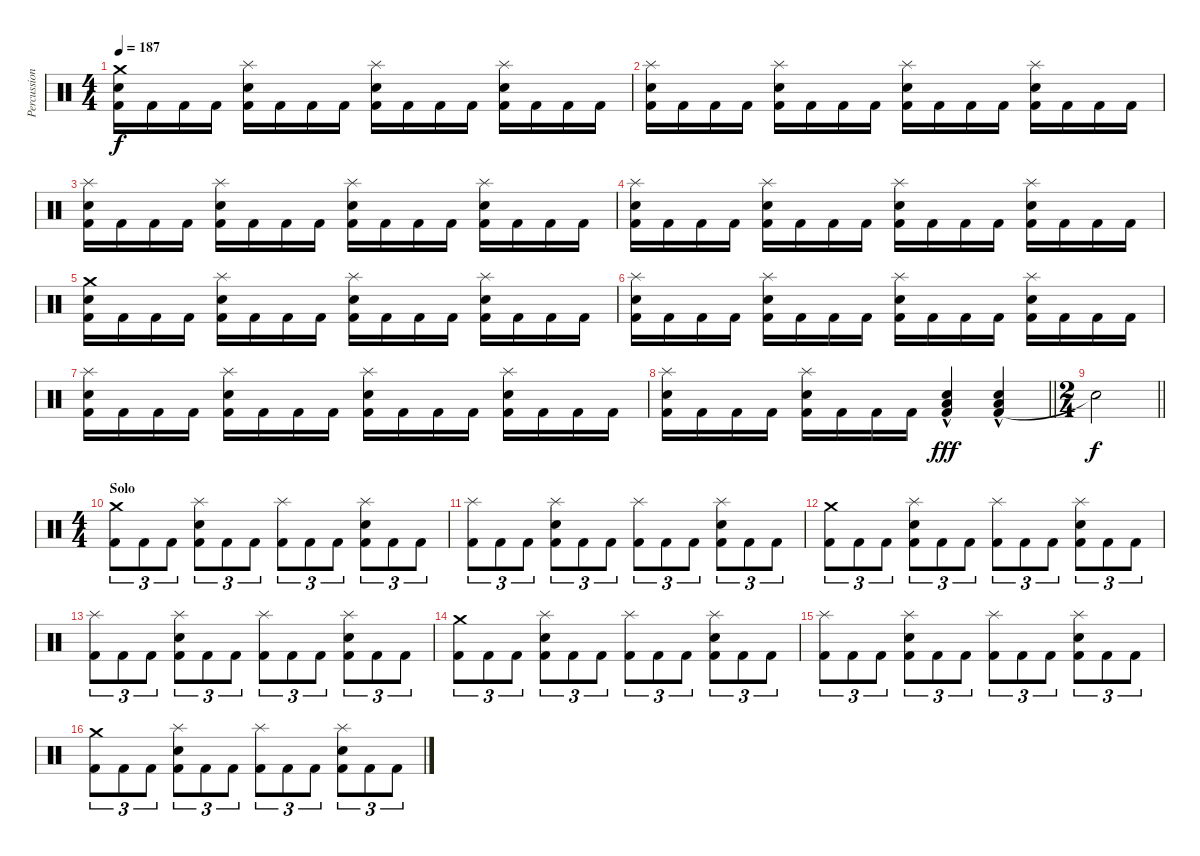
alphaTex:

\track ("Percussion" "Percussion") {instrument percussion}
\staff {score}
\articulation defaults
\ts (4 4)
\section ("" "")
\tempo 187
\clef neutral
\ks c
("Kick (hit) 2" "Snare (hit) 2" "Crash medium (hit)").16{dy f} "Kick (hit) 2".16 "Kick (hit) 2".16 "Kick (hit) 2".16 ("Kick (hit) 2" "Snare (hit) 2" "Splash (hit)").16 "Kick (hit) 2".16 "Kick (hit) 2".16 "Kick (hit) 2".16 ("Kick (hit) 2" "Snare (hit) 2" "Splash (hit)").16 "Kick (hit) 2".16 "Kick (hit) 2".16 "Kick (hit) 2".16 ("Kick (hit) 2" "Snare (hit) 2" "Splash (hit)").16 "Kick (hit) 2".16 "Kick (hit) 2".16 "Kick (hit) 2".16 |
("Kick (hit) 2" "Snare (hit) 2" "Splash (hit)").16 "Kick (hit) 2".16 "Kick (hit) 2".16 "Kick (hit) 2".16 ("Kick (hit) 2" "Snare (hit) 2" "Splash (hit)").16 "Kick (hit) 2".16 "Kick (hit) 2".16 "Kick (hit) 2".16 ("Kick (hit) 2" "Snare (hit) 2" "Splash (hit)").16 "Kick (hit) 2".16 "Kick (hit) 2".16 "Kick (hit) 2".16 ("Kick (hit) 2" "Snare (hit) 2" "Splash (hit)").16 "Kick (hit) 2".16 "Kick (hit) 2".16 "Kick (hit) 2".16 |
("Kick (hit) 2" "Snare (hit) 2" "Splash (hit)").16 "Kick (hit) 2".16 "Kick (hit) 2".16 "Kick (hit) 2".16 ("Kick (hit) 2" "Snare (hit) 2" "Splash (hit)").16 "Kick (hit) 2".16 "Kick (hit) 2".16 "Kick (hit) 2".16 ("Kick (hit) 2" "Snare (hit) 2" "Splash (hit)").16 "Kick (hit) 2".16 "Kick (hit) 2".16 "Kick (hit) 2".16 ("Kick (hit) 2" "Snare (hit) 2" "Splash (hit)").16 "Kick (hit) 2".16 "Kick (hit) 2".16 "Kick (hit) 2".16 |
("Kick (hit) 2" "Snare (hit) 2" "Splash (hit)").16 "Kick (hit) 2".16 "Kick (hit) 2".16 "Kick (hit) 2".16 ("Kick (hit) 2" "Snare (hit) 2" "Splash (hit)").16 "Kick (hit) 2".16 "Kick (hit) 2".16 "Kick (hit) 2".16 ("Kick (hit) 2" "Snare (hit) 2" "Splash (hit)").16 "Kick (hit) 2".16 "Kick (hit) 2".16 "Kick (hit) 2".16 ("Kick (hit) 2" "Snare (hit) 2" "Splash (hit)").16 "Kick (hit) 2".16 "Kick (hit) 2".16 "Kick (hit) 2".16 |
("Kick (hit) 2" "Snare (hit) 2" "Crash medium (hit)").16 "Kick (hit) 2".16 "Kick (hit) 2".16 "Kick (hit) 2".16 ("Kick (hit) 2" "Snare (hit) 2" "Splash (hit)").16 "Kick (hit) 2".16 "Kick (hit) 2".16 "Kick (hit) 2".16 ("Kick (hit) 2" "Snare (hit) 2" "Splash (hit)").16 "Kick (hit) 2".16 "Kick (hit) 2".16 "Kick (hit) 2".16 ("Kick (hit) 2" "Snare (hit) 2" "Splash (hit)").16 "Kick (hit) 2".16 "Kick (hit) 2".16 "Kick (hit) 2".16 |
("Kick (hit) 2" "Snare (hit) 2" "Splash (hit)").16 "Kick (hit) 2".16 "Kick (hit) 2".16 "Kick (hit) 2".16 ("Kick (hit) 2" "Snare (hit) 2" "Splash (hit)").16 "Kick (hit) 2".16 "Kick (hit) 2".16 "Kick (hit) 2".16 ("Kick (hit) 2" "Snare (hit) 2" "Splash (hit)").16 "Kick (hit) 2".16 "Kick (hit) 2".16 "Kick (hit) 2".16 ("Kick (hit) 2" "Snare (hit) 2" "Splash (hit)").16 "Kick (hit) 2".16 "Kick (hit) 2".16 "Kick (hit) 2".16 |
("Kick (hit) 2" "Snare (hit) 2" "Splash (hit)").16 "Kick (hit) 2".16 "Kick (hit) 2".16 "Kick (hit) 2".16 ("Kick (hit) 2" "Snare (hit) 2" "Splash (hit)").16 "Kick (hit) 2".16 "Kick (hit) 2".16 "Kick (hit) 2".16 ("Kick (hit) 2" "Snare (hit) 2" "Splash (hit)").16 "Kick (hit) 2".16 "Kick (hit) 2".16 "Kick (hit) 2".16 ("Kick (hit) 2" "Snare (hit) 2" "Splash (hit)").16 "Kick (hit) 2".16 "Kick (hit) 2".16 "Kick (hit) 2".16 |
\barLineRight lightlight
("Kick (hit) 2" "Snare (hit) 2" "Splash (hit)").16 "Kick (hit) 2".16 "Kick (hit) 2".16 "Kick (hit) 2".16 ("Kick (hit) 2" "Snare (hit) 2" "Splash (hit)").16 "Kick (hit) 2".16 "Kick (hit) 2".16 "Kick (hit) 2".16 ("Kick (hit) 2" "Snare (hit) 2" "Low Floor Tom (hit)"{hac}).4{dy fff} ("Kick (hit) 2" "Snare (hit) 2" "Low Floor Tom (hit)"{hac}).4 |
\ts (2 4)
\barLineRight lightlight "Snare (hit)"{t}.2{dy f}
|
\ts (4 4)
\section ("" "Solo")
("Kick (hit) 2" "Crash medium (hit)").8{tu (3 2) volume 13} "Kick (hit) 2".8{tu (3 2)} "Kick (hit) 2".8{tu (3 2)} ("Kick (hit) 2" "Snare (hit) 2" "Splash (hit)").8{tu (3 2)} "Kick (hit) 2".8{tu (3 2)} "Kick (hit) 2".8{tu (3 2)} ("Kick (hit) 2" "Splash (hit)").8{tu (3 2)} "Kick (hit) 2".8{tu (3 2)} "Kick (hit) 2".8{tu (3 2)} ("Kick (hit) 2" "Snare (hit) 2" "Splash (hit)").8{tu (3 2)} "Kick (hit) 2".8{tu (3 2)} "Kick (hit) 2".8{tu (3 2)} |
("Kick (hit) 2" "Splash (hit)").8{tu (3 2)} "Kick (hit) 2".8{tu (3 2)} "Kick (hit) 2".8{tu (3 2)} ("Kick (hit) 2" "Snare (hit) 2" "Splash (hit)").8{tu (3 2)} "Kick (hit) 2".8{tu (3 2)} "Kick (hit) 2".8{tu (3 2)} ("Kick (hit) 2" "Splash (hit)").8{tu (3 2)} "Kick (hit) 2".8{tu (3 2)} "Kick (hit) 2".8{tu (3 2)} ("Kick (hit) 2" "Snare (hit) 2" "Splash (hit)").8{tu (3 2)} "Kick (hit) 2".8{tu (3 2)} "Kick (hit) 2".8{tu (3 2)} |
("Kick (hit) 2" "Crash medium (hit)").8{tu (3 2)} "Kick (hit) 2".8{tu (3 2)} "Kick (hit) 2".8{tu (3 2)} ("Kick (hit) 2" "Snare (hit) 2" "Splash (hit)").8{tu (3 2)} "Kick (hit) 2".8{tu (3 2)} "Kick (hit) 2".8{tu (3 2)} ("Kick (hit) 2" "Splash (hit)").8{tu (3 2)} "Kick (hit) 2".8{tu (3 2)} "Kick (hit) 2".8{tu (3 2)} ("Kick (hit) 2" "Snare (hit) 2" "Splash (hit)").8{tu (3 2)} "Kick (hit) 2".8{tu (3 2)} "Kick (hit) 2".8{tu (3 2)} |
("Kick (hit) 2" "Splash (hit)").8{tu (3 2)} "Kick (hit) 2".8{tu (3 2)} "Kick (hit) 2".8{tu (3 2)} ("Kick (hit) 2" "Snare (hit) 2" "Splash (hit)").8{tu (3 2)} "Kick (hit) 2".8{tu (3 2)} "Kick (hit) 2".8{tu (3 2)} ("Kick (hit) 2" "Splash (hit)").8{tu (3 2)} "Kick (hit) 2".8{tu (3 2)} "Kick (hit) 2".8{tu (3 2)} ("Kick (hit) 2" "Snare (hit) 2" "Splash (hit)").8{tu (3 2)} "Kick (hit) 2".8{tu (3 2)} "Kick (hit) 2".8{tu (3 2)} |
("Kick (hit) 2" "Crash medium (hit)").8{tu (3 2)} "Kick (hit) 2".8{tu (3 2)} "Kick (hit) 2".8{tu (3 2)} ("Kick (hit) 2" "Snare (hit) 2" "Splash (hit)").8{tu (3 2)} "Kick (hit) 2".8{tu (3 2)} "Kick (hit) 2".8{tu (3 2)} ("Kick (hit) 2" "Splash (hit)").8{tu (3 2)} "Kick (hit) 2".8{tu (3 2)} "Kick (hit) 2".8{tu (3 2)} ("Kick (hit) 2" "Snare (hit) 2" "Splash (hit)").8{tu (3 2)} "Kick (hit) 2".8{tu (3 2)} "Kick (hit) 2".8{tu (3 2)} |
("Kick (hit) 2" "Splash (hit)").8{tu (3 2)} "Kick (hit) 2".8{tu (3 2)} "Kick (hit) 2".8{tu (3 2)} ("Kick (hit) 2" "Snare (hit) 2" "Splash (hit)").8{tu (3 2)} "Kick (hit) 2".8{tu (3 2)} "Kick (hit) 2".8{tu (3 2)} ("Kick (hit) 2" "Splash (hit)").8{tu (3 2)} "Kick (hit) 2".8{tu (3 2)} "Kick (hit) 2".8{tu (3 2)} ("Kick (hit) 2" "Snare (hit) 2" "Splash (hit)").8{tu (3 2)} "Kick (hit) 2".8{tu (3 2)} "Kick (hit) 2".8{tu (3 2)} |
("Kick (hit) 2" "Crash medium (hit)").8{tu (3 2)} "Kick (hit) 2".8{tu (3 2)} "Kick (hit) 2".8{tu (3 2)} ("Kick (hit) 2" "Snare (hit) 2" "Splash (hit)").8{tu (3 2)} "Kick (hit) 2".8{tu (3 2)} "Kick (hit) 2".8{tu (3 2)} ("Kick (hit) 2" "Splash (hit)").8{tu (3 2)} "Kick (hit) 2".8{tu (3 2)} "Kick (hit) 2".8{tu (3 2)} ("Kick (hit) 2" "Snare (hit) 2" "Splash (hit)").8{tu (3 2)} "Kick (hit) 2".8{tu (3 2)} "Kick (hit) 2".8{tu (3 2)}
